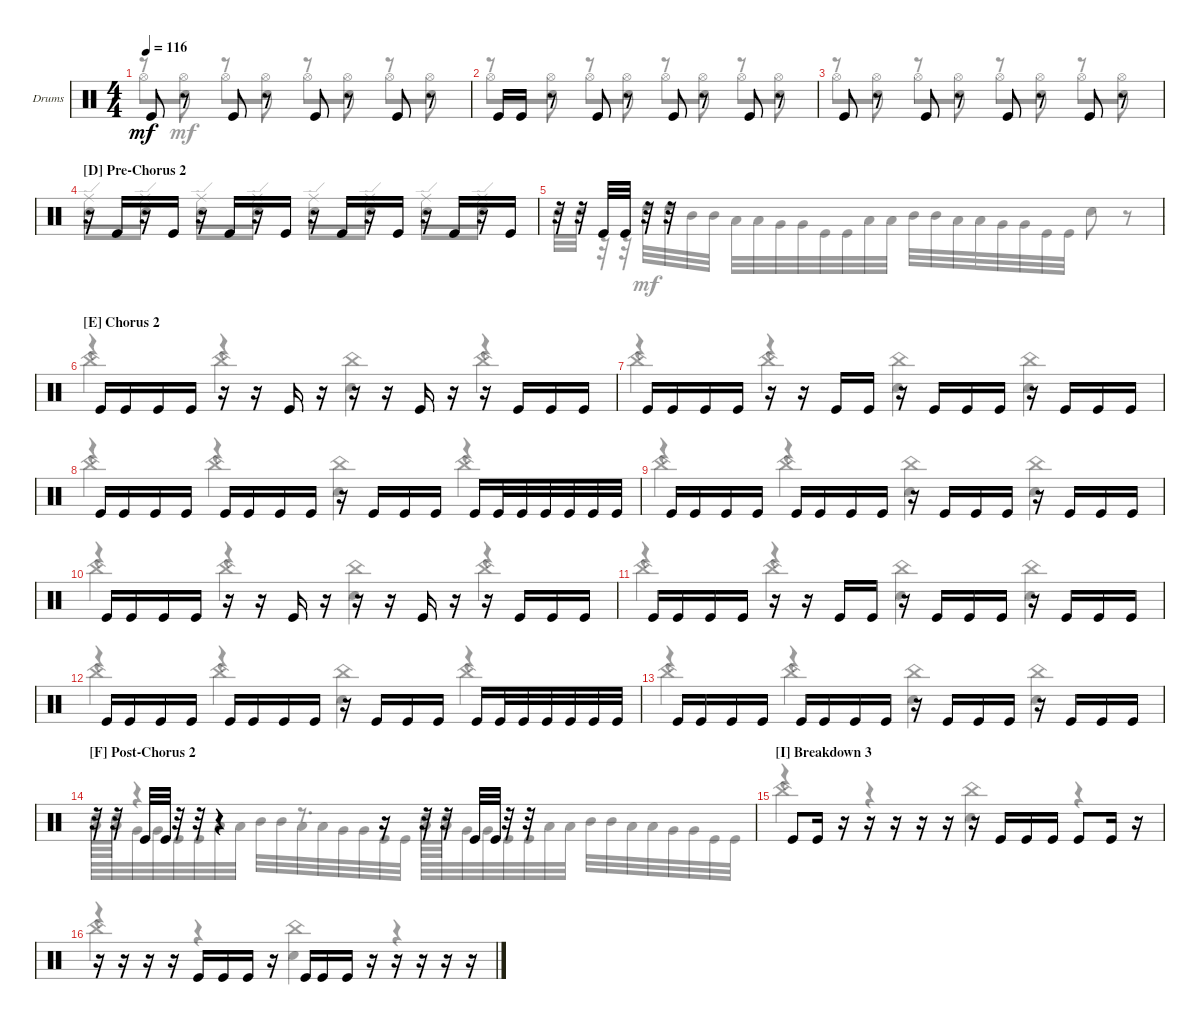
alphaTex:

\defaultSystemsLayout 4
\bracketExtendMode groupsimilarinstruments
\firstSystemTrackNameOrientation horizontal
\otherSystemsTrackNameOrientation horizontal
\track ("Drumkit" "Drums") {instrument percussion}
\staff {score}
\articulation defaults
\voice
\ts (4 4)
\tempo 116
\clef neutral
\ks c "Kick (hit)".8{dy mf}
r.8 "Kick (hit)".8 r.8 "Kick (hit)".8 r.8 "Kick (hit)".8 r.8 |
"Kick (hit)".16 "Kick (hit)".16 r.8 "Kick (hit)".8 r.8 "Kick (hit)".8 r.8 "Kick (hit)".8 r.8 |
"Kick (hit)".8 r.8 "Kick (hit)".8 r.8 "Kick (hit)".8 r.8 "Kick (hit)".8 r.8 |
\section ("D" "Pre-Chorus 2")
r.16 "Kick (hit)".16 r.16 "Kick (hit)".16 r.16 "Kick (hit)".16 r.16 "Kick (hit)".16 r.16 "Kick (hit)".16 r.16 "Kick (hit)".16 r.16 "Kick (hit)".16 r.16 "Kick (hit)".16 |
r.32 r.32 "Kick (hit)".32 "Kick (hit)".32 r.32 r.32 |
\section ("E" "Chorus 2")
"Kick (hit)".16 "Kick (hit)".16 "Kick (hit)".16 "Kick (hit)".16 r.16 r.16 "Kick (hit)".16 r.16 r.16 r.16 "Kick (hit)".16 r.16 r.16 "Kick (hit)".16 "Kick (hit)".16 "Kick (hit)".16 |
"Kick (hit)".16 "Kick (hit)".16 "Kick (hit)".16 "Kick (hit)".16 r.16 r.16 "Kick (hit)".16 "Kick (hit)".16 r.16 "Kick (hit)".16 "Kick (hit)".16 "Kick (hit)".16 r.16 "Kick (hit)".16 "Kick (hit)".16 "Kick (hit)".16 |
"Kick (hit)".16 "Kick (hit)".16 "Kick (hit)".16 "Kick (hit)".16 "Kick (hit)".16 "Kick (hit)".16 "Kick (hit)".16 "Kick (hit)".16 r.16 "Kick (hit)".16 "Kick (hit)".16 "Kick (hit)".16 "Kick (hit)".16 "Kick (hit)".32 "Kick (hit)".32 "Kick (hit)".32 "Kick (hit)".32 "Kick (hit)".32 "Kick (hit)".32 |
"Kick (hit)".16 "Kick (hit)".16 "Kick (hit)".16 "Kick (hit)".16 "Kick (hit)".16 "Kick (hit)".16 "Kick (hit)".16 "Kick (hit)".16 r.16 "Kick (hit)".16 "Kick (hit)".16 "Kick (hit)".16 r.16 "Kick (hit)".16 "Kick (hit)".16 "Kick (hit)".16 |
"Kick (hit)".16 "Kick (hit)".16 "Kick (hit)".16 "Kick (hit)".16 r.16 r.16 "Kick (hit)".16 r.16 r.16 r.16 "Kick (hit)".16 r.16 r.16 "Kick (hit)".16 "Kick (hit)".16 "Kick (hit)".16 |
"Kick (hit)".16 "Kick (hit)".16 "Kick (hit)".16 "Kick (hit)".16 r.16 r.16 "Kick (hit)".16 "Kick (hit)".16 r.16 "Kick (hit)".16 "Kick (hit)".16 "Kick (hit)".16 r.16 "Kick (hit)".16 "Kick (hit)".16 "Kick (hit)".16 |
"Kick (hit)".16 "Kick (hit)".16 "Kick (hit)".16 "Kick (hit)".16 "Kick (hit)".16 "Kick (hit)".16 "Kick (hit)".16 "Kick (hit)".16 r.16 "Kick (hit)".16 "Kick (hit)".16 "Kick (hit)".16 "Kick (hit)".16 "Kick (hit)".32 "Kick (hit)".32 "Kick (hit)".32 "Kick (hit)".32 "Kick (hit)".32 "Kick (hit)".32 |
"Kick (hit)".16 "Kick (hit)".16 "Kick (hit)".16 "Kick (hit)".16 "Kick (hit)".16 "Kick (hit)".16 "Kick (hit)".16 "Kick (hit)".16 r.16 "Kick (hit)".16 "Kick (hit)".16 "Kick (hit)".16 r.16 "Kick (hit)".16 "Kick (hit)".16 "Kick (hit)".16 |
\section ("F" "Post-Chorus 2")
r.32 r.32 "Kick (hit)".32 "Kick (hit)".32 r.32 r.32 r.4 r.16 r.32 r.32 "Kick (hit)".32 "Kick (hit)".32 r.32 r.32 |
\section ("I" "Breakdown 3")
"Kick (hit)".8 "Kick (hit)".16 r.16 r.16 r.16 r.16 r.16 r.16 "Kick (hit)".16 "Kick (hit)".16 "Kick (hit)".16 "Kick (hit)".8 "Kick (hit)".16 r.16 |
r.16 r.16 r.16 r.16 "Kick (hit)".16 "Kick (hit)".16 "Kick (hit)".16 r.16 "Kick (hit)".16 "Kick (hit)".16 "Kick (hit)".16 r.16 r.16 r.16 r.16 r.16
\voice
\clef neutral
\ottava regular
\simile none
\ks c
r.8{dy mf} "Snare (hit) 2".8 r.8 "Snare (hit) 2".8 r.8 "Snare (hit) 2".8 r.8 "Snare (hit) 2".8 |
r.8 "Snare (hit) 2".8 r.8 "Snare (hit) 2".8 r.8 "Snare (hit) 2".8 r.8 "Snare (hit) 2".8 |
r.8 "Snare (hit) 2".8 r.8 "Snare (hit) 2".8 r.8 "Snare (hit) 2".8 r.8 "Snare (hit) 2".8 |
"Snare (hit) 2".8 "Snare (hit) 2".8 "Snare (hit) 2".8 "Snare (hit) 2".8 "Snare (hit) 2".8 "Snare (hit) 2".8 "Snare (hit) 2".8 "Snare (hit) 2".8 |
"Snare (hit) 2".32 "Snare (hit) 2".32 |
r.4 r.4 "Snare (hit) 2".4 r.4 |
r.4 r.4 "Snare (hit) 2".4 "Snare (hit) 2".4 |
r.4 r.4 "Snare (hit) 2".4 r.4 |
r.4 r.4 "Snare (hit) 2".4 "Snare (hit) 2".4 |
r.4 r.4 "Snare (hit) 2".4 r.4 |
r.4 r.4 "Snare (hit) 2".4 "Snare (hit) 2".4 |
r.4 r.4 "Snare (hit) 2".4 r.4 |
r.4 r.4 "Snare (hit) 2".4 "Snare (hit) 2".4 |
"Snare (hit) 2".32 "Snare (hit) 2".32 r.4 r.8{d} "Snare (hit) 2".32 "Snare (hit) 2".32 |
r.4 r.4 "Snare (hit) 2".4 r.4 |
r.4 r.4 "Snare (hit) 2".4 r.4
\voice
\clef neutral
\ottava regular
\simile none
\ks c "Hi-Hat (open)".8{dy mf} "Hi-Hat (open)".8 "Hi-Hat (open)".8 "Hi-Hat (open)".8 "Hi-Hat (open)".8 "Hi-Hat (open)".8 "Hi-Hat (open)".8 "Hi-Hat (open)".8
|
"Hi-Hat (open)".8 "Hi-Hat (open)".8 "Hi-Hat (open)".8 "Hi-Hat (open)".8 "Hi-Hat (open)".8 "Hi-Hat (open)".8 "Hi-Hat (open)".8 "Hi-Hat (open)".8 |
"Hi-Hat (open)".8 "Hi-Hat (open)".8 "Hi-Hat (open)".8 "Hi-Hat (open)".8 "Hi-Hat (open)".8 "Hi-Hat (open)".8 "Hi-Hat (open)".8 "Hi-Hat (open)".8 |
"Ride (edge)".8 "Ride (edge)".8 "Ride (edge)".8 "Ride (edge)".8 "Ride (edge)".8 "Ride (edge)".8 "Ride (edge)".8 "Ride (edge)".8 |
|
"China (hit)".4 "China (hit)".4 "China (hit)".4 "China (hit)".4 |
"China (hit)".4 "China (hit)".4 "China (hit)".4 "China (hit)".4 |
"China (hit)".4 "China (hit)".4 "China (hit)".4 "China (hit)".4 |
"China (hit)".4 "China (hit)".4 "China (hit)".4 "China (hit)".4 |
"China (hit)".4 "China (hit)".4 "China (hit)".4 "China (hit)".4 |
"China (hit)".4 "China (hit)".4 "China (hit)".4 "China (hit)".4 |
"China (hit)".4 "China (hit)".4 "China (hit)".4 "China (hit)".4 |
"China (hit)".4 "China (hit)".4 "China (hit)".4 "China (hit)".4 |
|
"China (hit)".2 "China (hit)".2 |
"China (hit)".2 "China (hit)".2
\voice
\clef neutral
\ottava regular
\simile none
\ks c
|
|
|
|
r.32 r.32 r.32 r.32 "High Tom (hit)".32 "High Tom (hit)".32 "Mid Tom (hit)".32 "Mid Tom (hit)".32 "Low Tom (hit)".32 "Low Tom (hit)".32 "Very Low Tom (hit)".32 "Very Low Tom (hit)".32 "Kick (hit)".32 "Kick (hit)".32 "Low Tom (hit)".32 "Low Tom (hit)".32 "Mid Tom (hit)".32 "Mid Tom (hit)".32 "Low Tom (hit)".32 "Low Tom (hit)".32 "Very Low Tom (hit)".32 "Very Low Tom (hit)".32 "Kick (hit)".32 "Kick (hit)".32 "Snare (hit) 2".8 r.8 |
|
|
|
|
|
|
|
|
"Low Tom (hit)".32 "Low Tom (hit)".32 "Very Low Tom (hit)".32 "Very Low Tom (hit)".32 "Kick (hit)".32 "Kick (hit)".32 "Low Tom (hit)".32 "Low Tom (hit)".32 "Mid Tom (hit)".32 "Mid Tom (hit)".32 "Low Tom (hit)".32 "Low Tom (hit)".32 "Very Low Tom (hit)".32 "Very Low Tom (hit)".32 "Kick (hit)".32 "Kick (hit)".32 "Low Tom (hit)".32 "Low Tom (hit)".32 "Very Low Tom (hit)".32 "Very Low Tom (hit)".32 "Kick (hit)".32 "Kick (hit)".32 "Low Tom (hit)".32 "Low Tom (hit)".32 "Mid Tom (hit)".32 "Mid Tom (hit)".32 "Low Tom (hit)".32 "Low Tom (hit)".32 "Very Low Tom (hit)".32 "Very Low Tom (hit)".32 "Kick (hit)".32 "Kick (hit)".32 |
|
